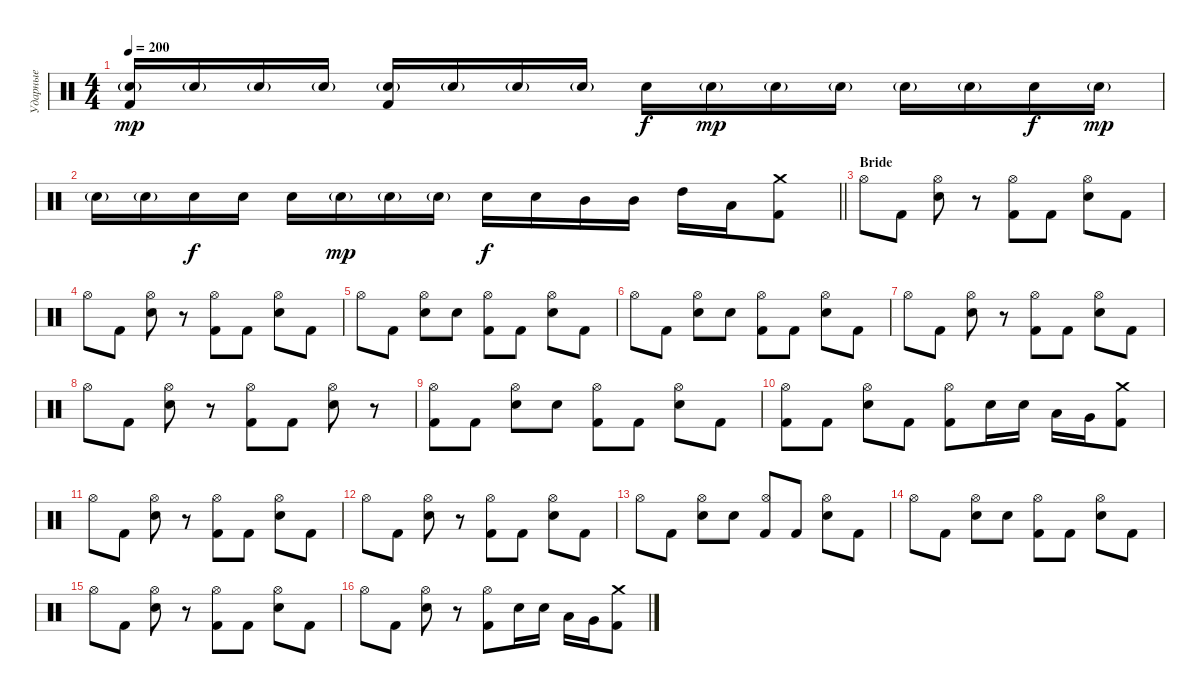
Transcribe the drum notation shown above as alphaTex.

\track ("Ударные" "Ударные") {instrument percussion}
\staff {score}
\articulation defaults
\ts (4 4)
\tempo 200
\clef neutral
\ks c
("Electric Snare (hit)"{g} "Kick (hit) 2").16{dy mp} "Electric Snare (hit)"{g}.16 "Electric Snare (hit)"{g}.16 "Electric Snare (hit)"{g}.16 ("Electric Snare (hit)"{g} "Kick (hit) 2").16 "Electric Snare (hit)"{g}.16 "Electric Snare (hit)"{g}.16 "Electric Snare (hit)"{g}.16 "Electric Snare (hit)".16{dy f} "Electric Snare (hit)"{g}.16{dy mp} "Electric Snare (hit)"{g}.16 "Electric Snare (hit)"{g}.16 "Electric Snare (hit)"{g}.16 "Electric Snare (hit)"{g}.16 "Electric Snare (hit)".16{dy f} "Electric Snare (hit)"{g}.16{dy mp} |
\barLineRight lightlight "Electric Snare (hit)"{g}.16 "Electric Snare (hit)"{g}.16 "Electric Snare (hit)".16{dy f} "Electric Snare (hit)".16 "Electric Snare (hit)".16 "Electric Snare (hit)"{g}.16{dy mp} "Electric Snare (hit)"{g}.16 "Electric Snare (hit)"{g}.16 "Electric Snare (hit)".16{dy f} "Electric Snare (hit)".16 "Mid Tom (hit)".16 "Mid Tom (hit)".16 "High Tom (hit)".16 "Low Tom (hit)".16
("Crash medium (hit)" "Kick (hit) 2").8 |
\section ("" "Bride")
"Hi-Hat (open)".8 "Kick (hit) 2".8 ("Hi-Hat (open)" "Electric Snare (hit)").8 r.8 ("Hi-Hat (open)" "Kick (hit) 2").8 "Kick (hit) 2".8 ("Hi-Hat (open)" "Electric Snare (hit)").8 "Kick (hit) 2".8 |
"Hi-Hat (open)".8 "Kick (hit) 2".8 ("Hi-Hat (open)" "Electric Snare (hit)").8 r.8 ("Hi-Hat (open)" "Kick (hit) 2").8 "Kick (hit) 2".8 ("Hi-Hat (open)" "Electric Snare (hit)").8 "Kick (hit) 2".8 |
"Hi-Hat (open)".8 "Kick (hit) 2".8 ("Hi-Hat (open)" "Electric Snare (hit)").8 "Electric Snare (hit)".8 ("Hi-Hat (open)" "Kick (hit) 2").8 "Kick (hit) 2".8 ("Hi-Hat (open)" "Electric Snare (hit)").8 "Kick (hit) 2".8 |
"Hi-Hat (open)".8 "Kick (hit) 2".8 ("Hi-Hat (open)" "Electric Snare (hit)").8 "Electric Snare (hit)".8 ("Hi-Hat (open)" "Kick (hit) 2").8 "Kick (hit) 2".8 ("Hi-Hat (open)" "Electric Snare (hit)").8 "Kick (hit) 2".8 |
"Hi-Hat (open)".8 "Kick (hit) 2".8 ("Hi-Hat (open)" "Electric Snare (hit)").8 r.8 ("Hi-Hat (open)" "Kick (hit) 2").8 "Kick (hit) 2".8 ("Hi-Hat (open)" "Electric Snare (hit)").8 "Kick (hit) 2".8 |
"Hi-Hat (open)".8 "Kick (hit) 2".8 ("Hi-Hat (open)" "Electric Snare (hit)").8 r.8 ("Hi-Hat (open)" "Kick (hit) 2").8 "Kick (hit) 2".8 ("Hi-Hat (open)" "Electric Snare (hit)").8 r.8 |
("Hi-Hat (open)" "Kick (hit) 2").8 "Kick (hit) 2".8 ("Hi-Hat (open)" "Electric Snare (hit)").8 "Electric Snare (hit)".8 ("Hi-Hat (open)" "Kick (hit) 2").8 "Kick (hit) 2".8 ("Hi-Hat (open)" "Electric Snare (hit)").8 "Kick (hit) 2".8 |
("Hi-Hat (open)" "Kick (hit) 2").8 "Kick (hit) 2".8 ("Hi-Hat (open)" "Electric Snare (hit)").8 "Kick (hit) 2".8 ("Hi-Hat (open)" "Kick (hit) 2").8 "Electric Snare (hit)".16 "Electric Snare (hit)".16 "Low Tom (hit)".16 "Very Low Tom (hit)".16 ("Crash medium (hit)" "Kick (hit) 2").8 |
"Hi-Hat (open)".8 "Kick (hit) 2".8 ("Hi-Hat (open)" "Electric Snare (hit)").8 r.8 ("Hi-Hat (open)" "Kick (hit) 2").8 "Kick (hit) 2".8 ("Hi-Hat (open)" "Electric Snare (hit)").8 "Kick (hit) 2".8 |
"Hi-Hat (open)".8 "Kick (hit) 2".8 ("Hi-Hat (open)" "Electric Snare (hit)").8 r.8 ("Hi-Hat (open)" "Kick (hit) 2").8 "Kick (hit) 2".8 ("Hi-Hat (open)" "Electric Snare (hit)").8 "Kick (hit) 2".8 |
"Hi-Hat (open)".8 "Kick (hit) 2".8 ("Hi-Hat (open)" "Electric Snare (hit)").8 "Electric Snare (hit)".8 ("Hi-Hat (open)" "Kick (hit) 2").8{beam Up} "Kick (hit) 2".8{beam Up} ("Hi-Hat (open)" "Electric Snare (hit)").8 "Kick (hit) 2".8 |
"Hi-Hat (open)".8 "Kick (hit) 2".8 ("Hi-Hat (open)" "Electric Snare (hit)").8 "Electric Snare (hit)".8 ("Hi-Hat (open)" "Kick (hit) 2").8 "Kick (hit) 2".8 ("Hi-Hat (open)" "Electric Snare (hit)").8 "Kick (hit) 2".8 |
"Hi-Hat (open)".8 "Kick (hit) 2".8 ("Hi-Hat (open)" "Electric Snare (hit)").8 r.8 ("Hi-Hat (open)" "Kick (hit) 2").8 "Kick (hit) 2".8 ("Hi-Hat (open)" "Electric Snare (hit)").8 "Kick (hit) 2".8 |
"Hi-Hat (open)".8 "Kick (hit) 2".8 ("Hi-Hat (open)" "Electric Snare (hit)").8 r.8 ("Hi-Hat (open)" "Kick (hit) 2").8 "Electric Snare (hit)".16 "Electric Snare (hit)".16 "Low Tom (hit)".16 "Very Low Tom (hit)".16 ("Crash medium (hit)" "Kick (hit) 2").8
